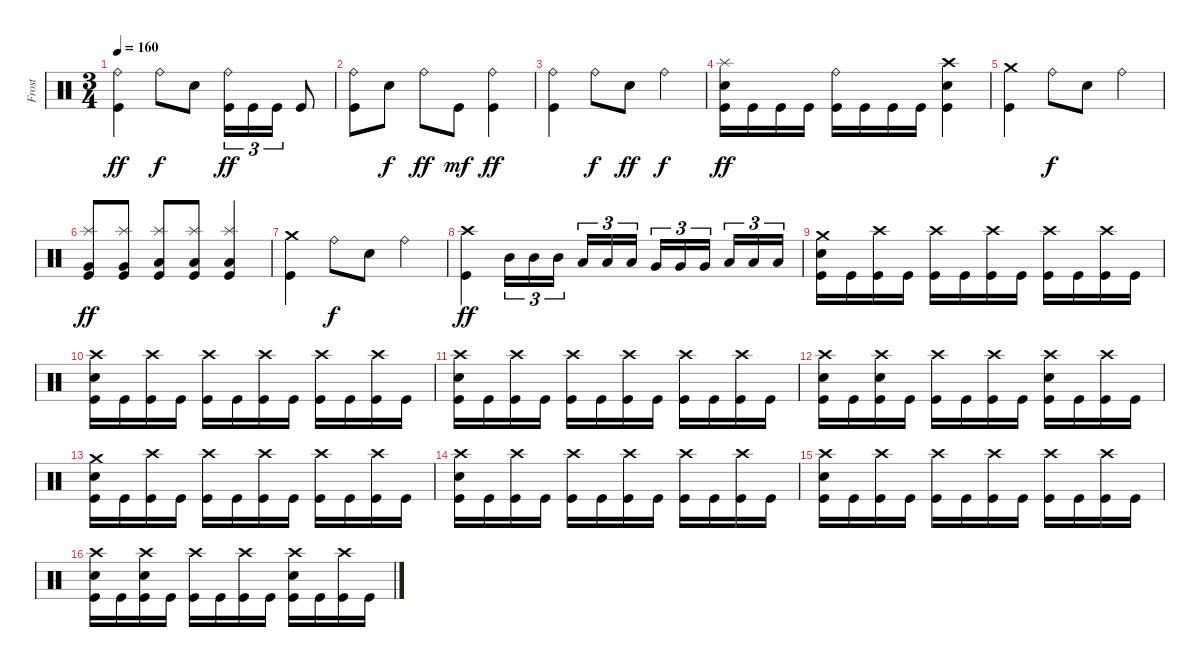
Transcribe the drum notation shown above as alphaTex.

\track ("Frost" "Frost") {instrument percussion}
\staff {score}
\articulation defaults
\ts (3 4)
\tempo 160
\clef neutral
\ks c
("Ride (bell)" "Kick (hit)").4{dy ff} "Ride (bell)".8{dy f} "Snare (hit) 2".8 ("Ride (bell)" "Kick (hit)").16{tu (3 2) dy ff} "Kick (hit)".16{tu (3 2)} "Kick (hit)".16{tu (3 2)} "Kick (hit)".8 |
("Ride (bell)" "Kick (hit)").8 "Snare (hit) 2".8{dy f} "Ride (bell)".8{dy ff} "Kick (hit)".8{dy mf} ("Ride (bell)" "Kick (hit)").4{dy ff} |
("Ride (bell)" "Kick (hit)").4 "Ride (bell)".8{dy f} "Snare (hit) 2".8{dy ff} "Ride (bell)".4{dy f} |
("Splash (hit)" "Snare (hit) 2" "Kick (hit)").16{dy ff} "Kick (hit)".16 "Kick (hit)".16 "Kick (hit)".16 ("Ride (bell)" "Kick (hit)").16 "Kick (hit)".16 "Kick (hit)".16 "Kick (hit)".16 ("Crash high (hit)" "Snare (hit) 2" "Kick (hit)").4 |
("Crash medium (hit)" "Kick (hit)").4 "Ride (bell)".8{dy f} "Snare (hit) 2".8 "Ride (bell)".4 |
("Splash (hit)" "Very Low Tom (hit)" "Kick (hit)").8{dy ff} ("Splash (hit)" "Very Low Tom (hit)" "Kick (hit)").8 ("Splash (hit)" "Low Floor Tom (hit)" "Kick (hit)").8 ("Splash (hit)" "Low Floor Tom (hit)" "Kick (hit)").8 ("Splash (hit)" "Low Floor Tom (hit)" "Kick (hit)").4 |
("Crash medium (hit)" "Kick (hit)").4 "Ride (bell)".8{dy f} "Snare (hit) 2".8 "Ride (bell)".4 |
("Crash high (hit)" "Kick (hit)").4{dy ff} "Mid Tom (hit)".16{tu (3 2)} "Mid Tom (hit)".16{tu (3 2)} "Mid Tom (hit)".16{tu (3 2) beam splitsecondary} "Low Tom (hit)".16{tu (3 2)} "Low Tom (hit)".16{tu (3 2)} "Low Tom (hit)".16{tu (3 2)} "Very Low Tom (hit)".16{tu (3 2)} "Very Low Tom (hit)".16{tu (3 2)} "Very Low Tom (hit)".16{tu (3 2) beam splitsecondary} "Low Floor Tom (hit)".16{tu (3 2)} "Low Floor Tom (hit)".16{tu (3 2)} "Low Floor Tom (hit)".16{tu (3 2)} |
("Crash medium (hit)" "Snare (hit) 2" "Kick (hit)").16 "Kick (hit)".16 ("Crash high (hit)" "Kick (hit)").16 "Kick (hit)".16 ("Crash high (hit)" "Kick (hit)").16 "Kick (hit)".16 ("Crash high (hit)" "Kick (hit)").16 "Kick (hit)".16 ("Crash high (hit)" "Kick (hit)").16 "Kick (hit)".16 ("Crash high (hit)" "Kick (hit)").16 "Kick (hit)".16 |
("Crash high (hit)" "Snare (hit) 2" "Kick (hit)").16 "Kick (hit)".16 ("Crash high (hit)" "Kick (hit)").16 "Kick (hit)".16 ("Crash high (hit)" "Kick (hit)").16 "Kick (hit)".16 ("Crash high (hit)" "Kick (hit)").16 "Kick (hit)".16 ("Crash high (hit)" "Kick (hit)").16 "Kick (hit)".16 ("Crash high (hit)" "Kick (hit)").16 "Kick (hit)".16 |
("Crash high (hit)" "Snare (hit) 2" "Kick (hit)").16 "Kick (hit)".16 ("Crash high (hit)" "Kick (hit)").16 "Kick (hit)".16 ("Crash high (hit)" "Kick (hit)").16 "Kick (hit)".16 ("Crash high (hit)" "Kick (hit)").16 "Kick (hit)".16 ("Crash high (hit)" "Kick (hit)").16 "Kick (hit)".16 ("Crash high (hit)" "Kick (hit)").16 "Kick (hit)".16 |
("Crash high (hit)" "Snare (hit) 2" "Kick (hit)").16 "Kick (hit)".16 ("Crash high (hit)" "Snare (hit) 2" "Kick (hit)").16 "Kick (hit)".16 ("Crash high (hit)" "Kick (hit)").16 "Kick (hit)".16 ("Crash high (hit)" "Kick (hit)").16 "Kick (hit)".16 ("Crash high (hit)" "Snare (hit) 2" "Kick (hit)").16 "Kick (hit)".16 ("Crash high (hit)" "Kick (hit)").16 "Kick (hit)".16 |
("Crash medium (hit)" "Snare (hit) 2" "Kick (hit)").16 "Kick (hit)".16 ("Crash high (hit)" "Kick (hit)").16 "Kick (hit)".16 ("Crash high (hit)" "Kick (hit)").16 "Kick (hit)".16 ("Crash high (hit)" "Kick (hit)").16 "Kick (hit)".16 ("Crash high (hit)" "Kick (hit)").16 "Kick (hit)".16 ("Crash high (hit)" "Kick (hit)").16 "Kick (hit)".16 |
("Crash high (hit)" "Snare (hit) 2" "Kick (hit)").16 "Kick (hit)".16 ("Crash high (hit)" "Kick (hit)").16 "Kick (hit)".16 ("Crash high (hit)" "Kick (hit)").16 "Kick (hit)".16 ("Crash high (hit)" "Kick (hit)").16 "Kick (hit)".16 ("Crash high (hit)" "Kick (hit)").16 "Kick (hit)".16 ("Crash high (hit)" "Kick (hit)").16 "Kick (hit)".16 |
("Crash high (hit)" "Snare (hit) 2" "Kick (hit)").16 "Kick (hit)".16 ("Crash high (hit)" "Kick (hit)").16 "Kick (hit)".16 ("Crash high (hit)" "Kick (hit)").16 "Kick (hit)".16 ("Crash high (hit)" "Kick (hit)").16 "Kick (hit)".16 ("Crash high (hit)" "Kick (hit)").16 "Kick (hit)".16 ("Crash high (hit)" "Kick (hit)").16 "Kick (hit)".16 |
("Crash high (hit)" "Snare (hit) 2" "Kick (hit)").16 "Kick (hit)".16 ("Crash high (hit)" "Snare (hit) 2" "Kick (hit)").16 "Kick (hit)".16 ("Crash high (hit)" "Kick (hit)").16 "Kick (hit)".16 ("Crash high (hit)" "Kick (hit)").16 "Kick (hit)".16 ("Crash high (hit)" "Snare (hit) 2" "Kick (hit)").16 "Kick (hit)".16 ("Crash high (hit)" "Kick (hit)").16 "Kick (hit)".16
